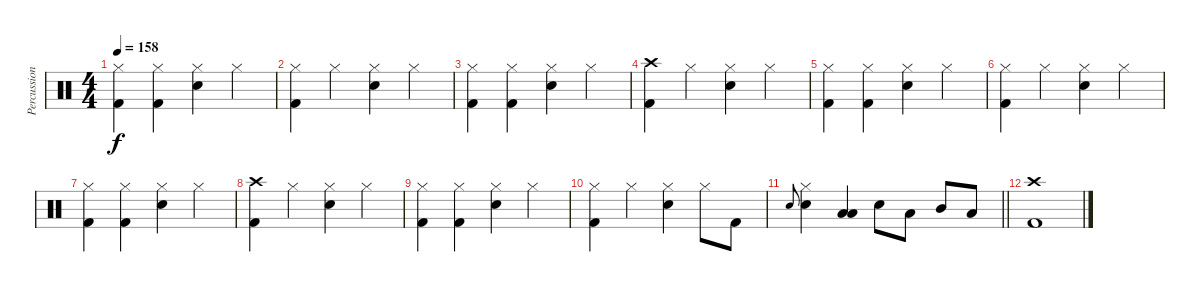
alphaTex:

\track ("Percussion" "Percussion") {instrument percussion}
\staff {score}
\articulation defaults
\ts (4 4)
\tempo 158
\clef neutral
\ks c
("Hi-Hat (closed)" "Kick (hit) 2").4{dy f} ("Hi-Hat (closed)" "Kick (hit) 2").4 ("Hi-Hat (closed)" "Snare (hit) 2").4 "Hi-Hat (closed)".4 |
("Hi-Hat (closed)" "Kick (hit) 2").4 "Hi-Hat (closed)".4 ("Hi-Hat (closed)" "Snare (hit) 2").4 "Hi-Hat (closed)".4 |
("Hi-Hat (closed)" "Kick (hit) 2").4 ("Hi-Hat (closed)" "Kick (hit) 2").4 ("Hi-Hat (closed)" "Snare (hit) 2").4 "Hi-Hat (closed)".4 |
("Crash high (hit)" "Kick (hit) 2").4 "Hi-Hat (closed)".4 ("Hi-Hat (closed)" "Snare (hit) 2").4 "Hi-Hat (closed)".4 |
("Hi-Hat (closed)" "Kick (hit) 2").4 ("Hi-Hat (closed)" "Kick (hit) 2").4 ("Hi-Hat (closed)" "Snare (hit) 2").4 "Hi-Hat (closed)".4 |
("Hi-Hat (closed)" "Kick (hit) 2").4 "Hi-Hat (closed)".4 ("Hi-Hat (closed)" "Snare (hit) 2").4 "Hi-Hat (closed)".4 |
("Hi-Hat (closed)" "Kick (hit) 2").4 ("Hi-Hat (closed)" "Kick (hit) 2").4 ("Hi-Hat (closed)" "Snare (hit) 2").4 "Hi-Hat (closed)".4 |
("Crash high (hit)" "Kick (hit) 2").4 "Hi-Hat (closed)".4 ("Hi-Hat (closed)" "Snare (hit) 2").4 "Hi-Hat (closed)".4 |
("Hi-Hat (closed)" "Kick (hit) 2").4 ("Hi-Hat (closed)" "Kick (hit) 2").4 ("Hi-Hat (closed)" "Snare (hit) 2").4 "Hi-Hat (closed)".4 |
("Hi-Hat (closed)" "Kick (hit) 2").4 "Hi-Hat (closed)".4 ("Hi-Hat (closed)" "Snare (hit) 2").4 "Hi-Hat (closed)".8 "Kick (hit) 2".8 |
\barLineRight lightlight "Snare (hit) 2".8{gr onbeat}
("Hi-Hat (closed)" "Snare (hit) 2").4 ("Low Floor Tom (hit)" "Low Tom (hit)").4 "Snare (hit) 2".8 "Low Tom (hit)".8 "Mid Tom (hit)".8 "Low Floor Tom (hit)".8 |
("Crash high (hit)" "Kick (hit) 2").1
